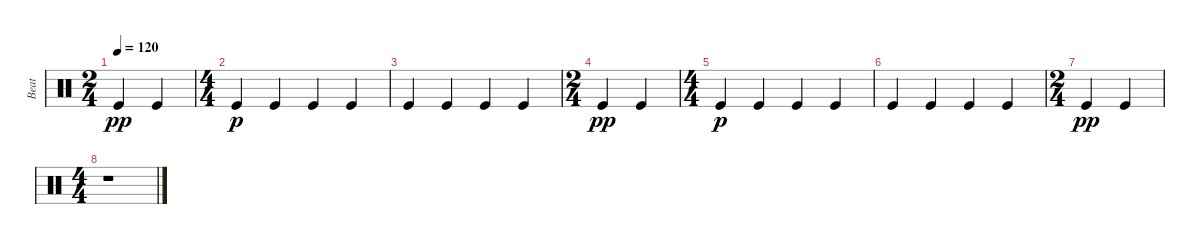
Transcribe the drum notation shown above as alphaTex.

\track ("Beat" "Beat") {instrument percussion}
\staff {score}
\articulation defaults
\ts (2 4)
\tempo 120
\clef neutral
\ks c "Kick (hit)".4{dy pp} "Kick (hit)".4
|
\ts (4 4)
"Kick (hit)".4{dy p} "Kick (hit)".4 "Kick (hit)".4 "Kick (hit)".4 |
"Kick (hit)".4 "Kick (hit)".4 "Kick (hit)".4 "Kick (hit)".4 |
\ts (2 4)
"Kick (hit)".4{dy pp} "Kick (hit)".4 |
\ts (4 4)
"Kick (hit)".4{dy p} "Kick (hit)".4 "Kick (hit)".4 "Kick (hit)".4 |
"Kick (hit)".4 "Kick (hit)".4 "Kick (hit)".4 "Kick (hit)".4 |
\ts (2 4)
"Kick (hit)".4{dy pp} "Kick (hit)".4 |
\ts (4 4)
r.1
